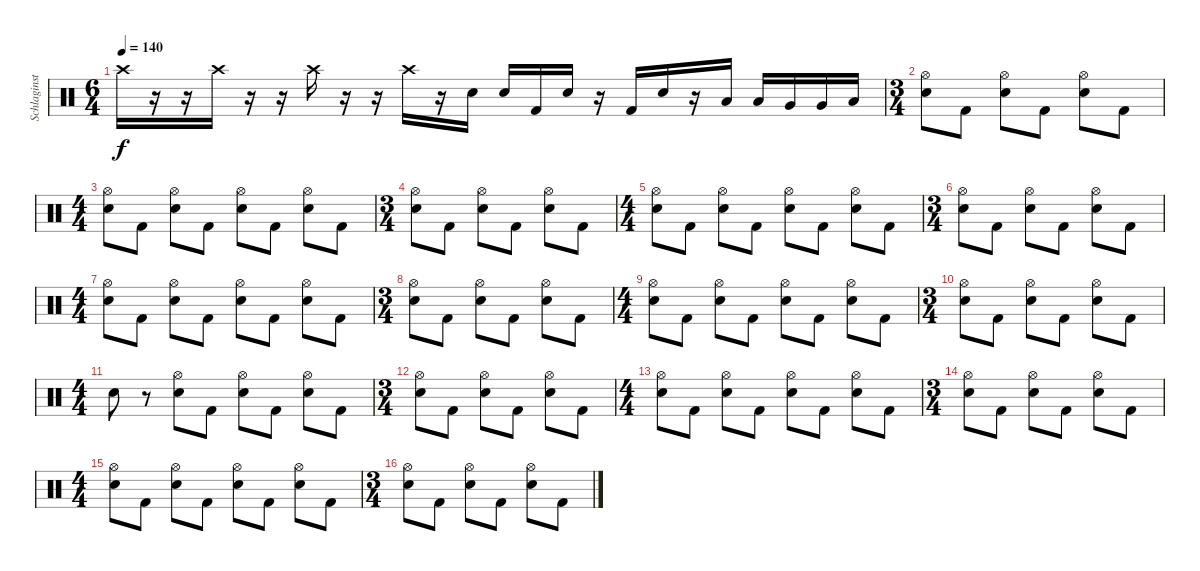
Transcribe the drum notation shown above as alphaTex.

\track ("Schlaginstrumente - Auswahl" "Schlaginst") {instrument percussion}
\staff {score}
\articulation defaults
\ts (6 4)
\tempo 140
\clef neutral
\ks c "Crash high (hit)".16{dy f}
r.16 r.16 "Crash high (hit)".16 r.16 r.16 "Crash high (hit)".16 r.16 r.16 "Crash high (hit)".16 r.16 "Snare (hit) 2".16 "Snare (hit) 2".16 "Kick (hit) 2".16 "Snare (hit) 2".16 r.16 "Kick (hit) 2".16 "Snare (hit) 2".16 r.16 "Low Tom (hit)".16 "Low Tom (hit)".16 "Very Low Tom (hit)".16 "Very Low Tom (hit)".16 "Low Floor Tom (hit)".16 |
\ts (3 4)
("Hi-Hat (open)" "Snare (hit) 2").8 "Kick (hit) 2".8 ("Hi-Hat (open)" "Snare (hit) 2").8 "Kick (hit) 2".8 ("Hi-Hat (open)" "Snare (hit) 2").8 "Kick (hit) 2".8 |
\ts (4 4)
("Hi-Hat (open)" "Snare (hit) 2").8 "Kick (hit) 2".8 ("Hi-Hat (open)" "Snare (hit) 2").8 "Kick (hit) 2".8 ("Hi-Hat (open)" "Snare (hit) 2").8 "Kick (hit) 2".8 ("Hi-Hat (open)" "Snare (hit) 2").8 "Kick (hit) 2".8 |
\ts (3 4)
("Hi-Hat (open)" "Snare (hit) 2").8 "Kick (hit) 2".8 ("Hi-Hat (open)" "Snare (hit) 2").8 "Kick (hit) 2".8 ("Hi-Hat (open)" "Snare (hit) 2").8 "Kick (hit) 2".8 |
\ts (4 4)
("Hi-Hat (open)" "Snare (hit) 2").8 "Kick (hit) 2".8 ("Hi-Hat (open)" "Snare (hit) 2").8 "Kick (hit) 2".8 ("Hi-Hat (open)" "Snare (hit) 2").8 "Kick (hit) 2".8 ("Hi-Hat (open)" "Snare (hit) 2").8 "Kick (hit) 2".8 |
\ts (3 4)
("Hi-Hat (open)" "Snare (hit) 2").8 "Kick (hit) 2".8 ("Hi-Hat (open)" "Snare (hit) 2").8 "Kick (hit) 2".8 ("Hi-Hat (open)" "Snare (hit) 2").8 "Kick (hit) 2".8 |
\ts (4 4)
("Hi-Hat (open)" "Snare (hit) 2").8 "Kick (hit) 2".8 ("Hi-Hat (open)" "Snare (hit) 2").8 "Kick (hit) 2".8 ("Hi-Hat (open)" "Snare (hit) 2").8 "Kick (hit) 2".8 ("Hi-Hat (open)" "Snare (hit) 2").8 "Kick (hit) 2".8 |
\ts (3 4)
("Hi-Hat (open)" "Snare (hit) 2").8 "Kick (hit) 2".8 ("Hi-Hat (open)" "Snare (hit) 2").8 "Kick (hit) 2".8 ("Hi-Hat (open)" "Snare (hit) 2").8 "Kick (hit) 2".8 |
\ts (4 4)
("Hi-Hat (open)" "Snare (hit) 2").8 "Kick (hit) 2".8 ("Hi-Hat (open)" "Snare (hit) 2").8 "Kick (hit) 2".8 ("Hi-Hat (open)" "Snare (hit) 2").8 "Kick (hit) 2".8 ("Hi-Hat (open)" "Snare (hit) 2").8 "Kick (hit) 2".8 |
\ts (3 4)
("Hi-Hat (open)" "Snare (hit) 2").8 "Kick (hit) 2".8 ("Hi-Hat (open)" "Snare (hit) 2").8 "Kick (hit) 2".8 ("Hi-Hat (open)" "Snare (hit) 2").8 "Kick (hit) 2".8 |
\ts (4 4)
"Snare (hit) 2".8 r.8 ("Hi-Hat (open)" "Snare (hit) 2").8 "Kick (hit) 2".8 ("Hi-Hat (open)" "Snare (hit) 2").8 "Kick (hit) 2".8 ("Hi-Hat (open)" "Snare (hit) 2").8 "Kick (hit) 2".8 |
\ts (3 4)
("Hi-Hat (open)" "Snare (hit) 2").8 "Kick (hit) 2".8 ("Hi-Hat (open)" "Snare (hit) 2").8 "Kick (hit) 2".8 ("Hi-Hat (open)" "Snare (hit) 2").8 "Kick (hit) 2".8 |
\ts (4 4)
("Hi-Hat (open)" "Snare (hit) 2").8 "Kick (hit) 2".8 ("Hi-Hat (open)" "Snare (hit) 2").8 "Kick (hit) 2".8 ("Hi-Hat (open)" "Snare (hit) 2").8 "Kick (hit) 2".8 ("Hi-Hat (open)" "Snare (hit) 2").8 "Kick (hit) 2".8 |
\ts (3 4)
("Hi-Hat (open)" "Snare (hit) 2").8 "Kick (hit) 2".8 ("Hi-Hat (open)" "Snare (hit) 2").8 "Kick (hit) 2".8 ("Hi-Hat (open)" "Snare (hit) 2").8 "Kick (hit) 2".8 |
\ts (4 4)
("Hi-Hat (open)" "Snare (hit) 2").8 "Kick (hit) 2".8 ("Hi-Hat (open)" "Snare (hit) 2").8 "Kick (hit) 2".8 ("Hi-Hat (open)" "Snare (hit) 2").8 "Kick (hit) 2".8 ("Hi-Hat (open)" "Snare (hit) 2").8 "Kick (hit) 2".8 |
\ts (3 4)
("Hi-Hat (open)" "Snare (hit) 2").8 "Kick (hit) 2".8 ("Hi-Hat (open)" "Snare (hit) 2").8 "Kick (hit) 2".8 ("Hi-Hat (open)" "Snare (hit) 2").8 "Kick (hit) 2".8
